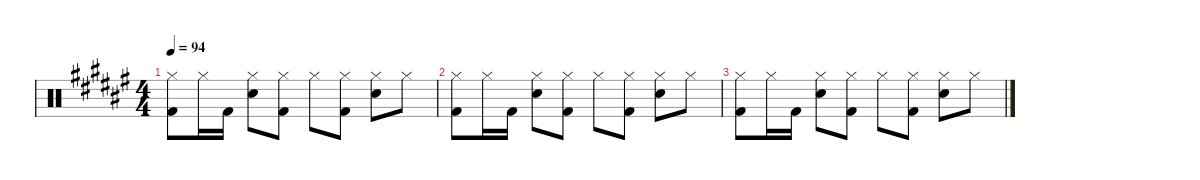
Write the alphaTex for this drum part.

\defaultSystemsLayout 4
\hideDynamics
\bracketExtendMode nobrackets
\singleTrackTrackNamePolicy hidden
\multiTrackTrackNamePolicy hidden
\otherSystemsTrackNameOrientation horizontal
\track ("Mike Joyce" "drm.") {instrument percussion}
\staff {score}
\articulation defaults
\ts (4 4)
\tempo 94
\clef neutral
\ks f#
("Hi-Hat (closed)"{acc forcenatural} "Kick (hit) 2"{acc forcenatural}).8{dy f beam Down} "Hi-Hat (closed)"{acc forcenatural}.16{beam Down} "Kick (hit) 2"{acc forcenatural}.16{beam Down} ("Hi-Hat (closed)"{acc forcenatural} "Snare (hit) 2"{acc forcenatural}).8{beam Down} ("Hi-Hat (closed)"{acc forcenatural} "Kick (hit) 2"{acc forcenatural}).8{beam Down} "Hi-Hat (closed)"{acc forcenatural}.8{beam Down} ("Hi-Hat (closed)"{acc forcenatural} "Kick (hit) 2"{acc forcenatural}).8{beam Down} ("Hi-Hat (closed)"{acc forcenatural} "Snare (hit) 2"{acc forcenatural}).8{beam Down} "Hi-Hat (closed)"{acc forcenatural}.8{beam Down} |
("Hi-Hat (closed)"{acc forcenatural} "Kick (hit) 2"{acc forcenatural}).8{beam Down} "Hi-Hat (closed)"{acc forcenatural}.16{beam Down} "Kick (hit) 2"{acc forcenatural}.16{beam Down} ("Hi-Hat (closed)"{acc forcenatural} "Snare (hit) 2"{acc forcenatural}).8{beam Down} ("Hi-Hat (closed)"{acc forcenatural} "Kick (hit) 2"{acc forcenatural}).8{beam Down} "Hi-Hat (closed)"{acc forcenatural}.8{beam Down} ("Hi-Hat (closed)"{acc forcenatural} "Kick (hit) 2"{acc forcenatural}).8{beam Down} ("Hi-Hat (closed)"{acc forcenatural} "Snare (hit) 2"{acc forcenatural}).8{beam Down} "Hi-Hat (closed)"{acc forcenatural}.8{beam Down} |
("Hi-Hat (closed)"{acc forcenatural} "Kick (hit) 2"{acc forcenatural}).8{beam Down} "Hi-Hat (closed)"{acc forcenatural}.16{beam Down} "Kick (hit) 2"{acc forcenatural}.16{beam Down} ("Hi-Hat (closed)"{acc forcenatural} "Snare (hit) 2"{acc forcenatural}).8{beam Down} ("Hi-Hat (closed)"{acc forcenatural} "Kick (hit) 2"{acc forcenatural}).8{beam Down} "Hi-Hat (closed)"{acc forcenatural}.8{beam Down} ("Hi-Hat (closed)"{acc forcenatural} "Kick (hit) 2"{acc forcenatural}).8{beam Down} ("Hi-Hat (closed)"{acc forcenatural} "Snare (hit) 2"{acc forcenatural}).8{beam Down} "Hi-Hat (closed)"{acc forcenatural}.8{beam Down}
